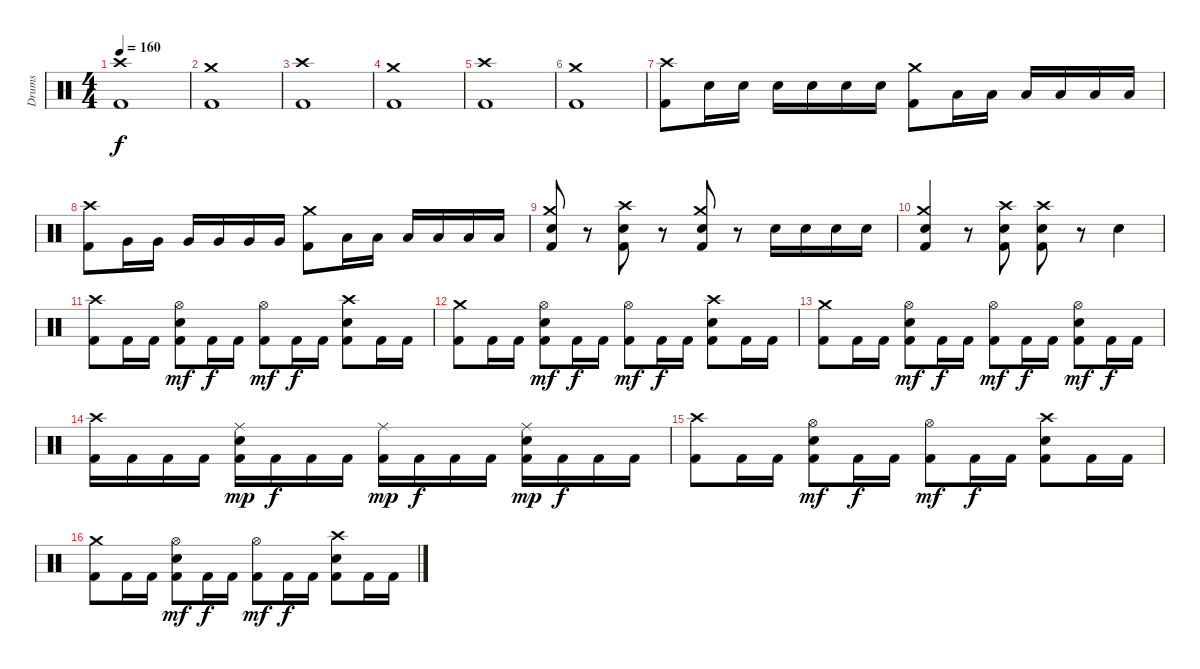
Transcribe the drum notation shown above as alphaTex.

\track ("Drums" "Drums") {instrument percussion}
\staff {score}
\articulation defaults
\ts (4 4)
\tempo 160
\clef neutral
\ks c
("Crash high (hit)" "Kick (hit) 2").1{dy f} |
("Crash medium (hit)" "Kick (hit) 2").1 |
("Crash high (hit)" "Kick (hit) 2").1 |
("Crash medium (hit)" "Kick (hit) 2").1 |
("Crash high (hit)" "Kick (hit) 2").1 |
("Crash medium (hit)" "Kick (hit) 2").1 |
("Crash high (hit)" "Kick (hit) 2").8 "Electric Snare (hit)".16 "Electric Snare (hit)".16 "Electric Snare (hit)".16 "Electric Snare (hit)".16 "Electric Snare (hit)".16 "Electric Snare (hit)".16 ("Crash medium (hit)" "Kick (hit) 2").8 "Low Tom (hit)".16 "Low Tom (hit)".16 "Low Tom (hit)".16 "Low Tom (hit)".16 "Low Tom (hit)".16 "Low Tom (hit)".16 |
("Crash high (hit)" "Kick (hit) 2").8 "Very Low Tom (hit)".16 "Very Low Tom (hit)".16 "Very Low Tom (hit)".16 "Very Low Tom (hit)".16 "Very Low Tom (hit)".16 "Very Low Tom (hit)".16 ("Crash medium (hit)" "Kick (hit) 2").8 "Low Floor Tom (hit)".16 "Low Floor Tom (hit)".16 "Low Floor Tom (hit)".16 "Low Floor Tom (hit)".16 "Low Floor Tom (hit)".16 "Low Floor Tom (hit)".16 |
("Crash medium (hit)" "Electric Snare (hit)" "Kick (hit) 2").8 r.8 ("Crash high (hit)" "Electric Snare (hit)" "Kick (hit) 2").8 r.8 ("Crash medium (hit)" "Electric Snare (hit)" "Kick (hit) 2").8 r.8 "Electric Snare (hit)".16 "Electric Snare (hit)".16 "Electric Snare (hit)".16 "Electric Snare (hit)".16 |
("Crash medium (hit)" "Electric Snare (hit)" "Kick (hit) 2").4 r.8 ("Crash high (hit)" "Electric Snare (hit)" "Kick (hit) 2").8 ("Crash high (hit)" "Electric Snare (hit)" "Kick (hit) 2").8 r.8 "Electric Snare (hit)".4 |
("Crash high (hit)" "Kick (hit) 2").8 "Kick (hit) 2".16 "Kick (hit) 2".16 ("Hi-Hat (open)" "Electric Snare (hit)" "Kick (hit) 2").8{dy mf} "Kick (hit) 2".16{dy f} "Kick (hit) 2".16 ("Hi-Hat (open)" "Kick (hit) 2").8{dy mf} "Kick (hit) 2".16{dy f} "Kick (hit) 2".16 ("Crash high (hit)" "Electric Snare (hit)" "Kick (hit) 2").8 "Kick (hit) 2".16 "Kick (hit) 2".16 |
("Crash medium (hit)" "Kick (hit) 2").8 "Kick (hit) 2".16 "Kick (hit) 2".16 ("Hi-Hat (open)" "Electric Snare (hit)" "Kick (hit) 2").8{dy mf} "Kick (hit) 2".16{dy f} "Kick (hit) 2".16 ("Hi-Hat (open)" "Kick (hit) 2").8{dy mf} "Kick (hit) 2".16{dy f} "Kick (hit) 2".16 ("Crash high (hit)" "Electric Snare (hit)" "Kick (hit) 2").8 "Kick (hit) 2".16 "Kick (hit) 2".16 |
("Crash medium (hit)" "Kick (hit) 2").8 "Kick (hit) 2".16 "Kick (hit) 2".16 ("Hi-Hat (open)" "Electric Snare (hit)" "Kick (hit) 2").8{dy mf} "Kick (hit) 2".16{dy f} "Kick (hit) 2".16 ("Hi-Hat (open)" "Kick (hit) 2").8{dy mf} "Kick (hit) 2".16{dy f} "Kick (hit) 2".16 ("Hi-Hat (open)" "Electric Snare (hit)" "Kick (hit) 2").8{dy mf} "Kick (hit) 2".16{dy f} "Kick (hit) 2".16 |
("Crash high (hit)" "Kick (hit) 2").16 "Kick (hit) 2".16 "Kick (hit) 2".16 "Kick (hit) 2".16 ("Ride (middle)" "Electric Snare (hit)" "Kick (hit) 2").16{dy mp} "Kick (hit) 2".16{dy f} "Kick (hit) 2".16 "Kick (hit) 2".16 ("Ride (middle)" "Kick (hit) 2").16{dy mp} "Kick (hit) 2".16{dy f} "Kick (hit) 2".16 "Kick (hit) 2".16 ("Ride (middle)" "Electric Snare (hit)" "Kick (hit) 2").16{dy mp} "Kick (hit) 2".16{dy f} "Kick (hit) 2".16 "Kick (hit) 2".16 |
("Crash high (hit)" "Kick (hit) 2").8 "Kick (hit) 2".16 "Kick (hit) 2".16 ("Hi-Hat (open)" "Electric Snare (hit)" "Kick (hit) 2").8{dy mf} "Kick (hit) 2".16{dy f} "Kick (hit) 2".16 ("Hi-Hat (open)" "Kick (hit) 2").8{dy mf} "Kick (hit) 2".16{dy f} "Kick (hit) 2".16 ("Crash high (hit)" "Electric Snare (hit)" "Kick (hit) 2").8 "Kick (hit) 2".16 "Kick (hit) 2".16 |
("Crash medium (hit)" "Kick (hit) 2").8 "Kick (hit) 2".16 "Kick (hit) 2".16 ("Hi-Hat (open)" "Electric Snare (hit)" "Kick (hit) 2").8{dy mf} "Kick (hit) 2".16{dy f} "Kick (hit) 2".16 ("Hi-Hat (open)" "Kick (hit) 2").8{dy mf} "Kick (hit) 2".16{dy f} "Kick (hit) 2".16 ("Crash high (hit)" "Electric Snare (hit)" "Kick (hit) 2").8 "Kick (hit) 2".16 "Kick (hit) 2".16
